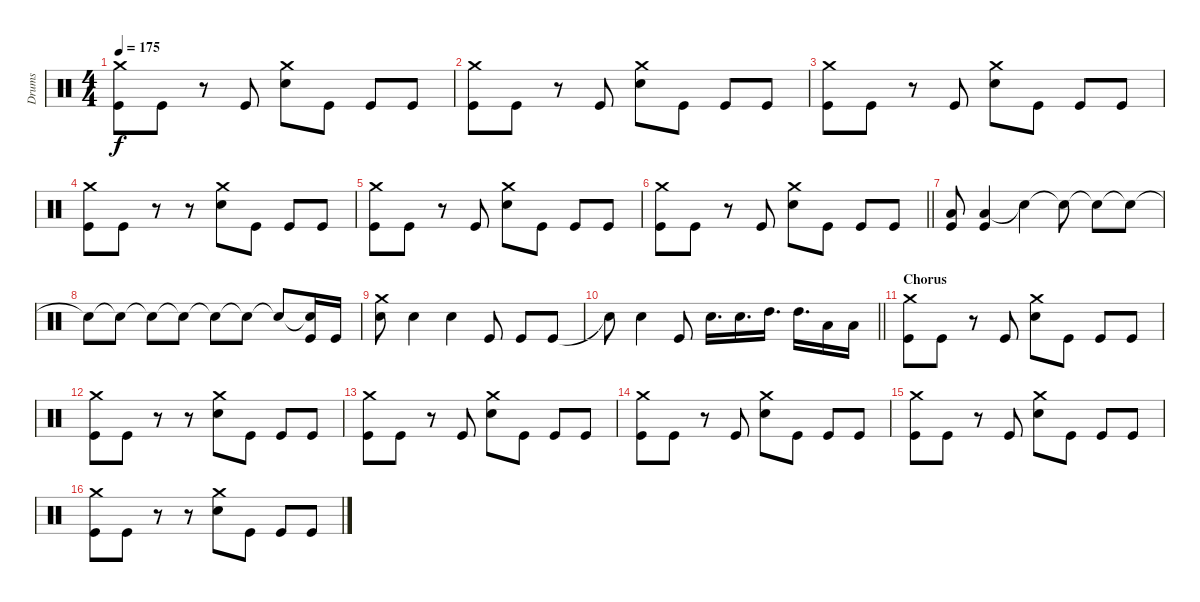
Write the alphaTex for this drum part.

\track ("Drums" "Drums") {instrument percussion}
\staff {score}
\articulation defaults
\ts (4 4)
\tempo 175
\clef neutral
\ks c
("Crash medium (hit)" "Kick (hit)").8{dy f} "Kick (hit)".8 r.8 "Kick (hit)".8 ("Crash medium (hit)" "Electric Snare (hit)").8 "Kick (hit)".8 "Kick (hit)".8 "Kick (hit)".8 |
("Crash medium (hit)" "Kick (hit)").8 "Kick (hit)".8 r.8 "Kick (hit)".8 ("Crash medium (hit)" "Electric Snare (hit)").8 "Kick (hit)".8 "Kick (hit)".8 "Kick (hit)".8 |
("Crash medium (hit)" "Kick (hit)").8 "Kick (hit)".8 r.8 "Kick (hit)".8 ("Crash medium (hit)" "Electric Snare (hit)").8 "Kick (hit)".8 "Kick (hit)".8 "Kick (hit)".8 |
("Crash medium (hit)" "Kick (hit)").8 "Kick (hit)".8 r.8 r.8 ("Crash medium (hit)" "Electric Snare (hit)").8 "Kick (hit)".8 "Kick (hit)".8 "Kick (hit)".8 |
("Crash medium (hit)" "Kick (hit)").8 "Kick (hit)".8 r.8 "Kick (hit)".8 ("Crash medium (hit)" "Electric Snare (hit)").8 "Kick (hit)".8 "Kick (hit)".8 "Kick (hit)".8 |
\barLineRight lightlight
("Crash medium (hit)" "Kick (hit)").8 "Kick (hit)".8 r.8 "Kick (hit)".8 ("Crash medium (hit)" "Electric Snare (hit)").8 "Kick (hit)".8 "Kick (hit)".8 "Kick (hit)".8 |
("Low Tom (hit)" "Kick (hit)").8 ("Low Tom (hit)" "Kick (hit)").4 "Snare (hit)"{t}.4 "Snare (hit)"{t}.8 "Snare (hit)"{t}.8 "Snare (hit)"{t}.8 |
"Snare (hit)"{t}.8 "Snare (hit)"{t}.8 "Snare (hit)"{t}.8 "Snare (hit)"{t}.8 "Snare (hit)"{t}.8 "Snare (hit)"{t}.8 "Snare (hit)"{t}.8 ("Snare (hit)"{t} "Kick (hit)").16 "Kick (hit)".16 |
("Crash medium (hit)" "Electric Snare (hit)").8 "Electric Snare (hit)".4 "Electric Snare (hit)".4 "Kick (hit)".8 "Kick (hit)".8 "Kick (hit)".8 |
\barLineRight lightlight "Snare (hit)"{t}.8 "Electric Snare (hit)".4 "Kick (hit)".8 "Electric Snare (hit)".16{d} "Electric Snare (hit)".16{d} "High Tom (hit)".16{d} "High Tom (hit)".16{d} "Low Tom (hit)".16 "Low Tom (hit)".16
|
\section ("" "Chorus")
("Crash medium (hit)" "Kick (hit)").8 "Kick (hit)".8 r.8 "Kick (hit)".8 ("Crash medium (hit)" "Electric Snare (hit)").8 "Kick (hit)".8 "Kick (hit)".8 "Kick (hit)".8 |
("Crash medium (hit)" "Kick (hit)").8 "Kick (hit)".8 r.8 r.8 ("Crash medium (hit)" "Electric Snare (hit)").8 "Kick (hit)".8 "Kick (hit)".8 "Kick (hit)".8 |
("Crash medium (hit)" "Kick (hit)").8 "Kick (hit)".8 r.8 "Kick (hit)".8 ("Crash medium (hit)" "Electric Snare (hit)").8 "Kick (hit)".8 "Kick (hit)".8 "Kick (hit)".8 |
("Crash medium (hit)" "Kick (hit)").8 "Kick (hit)".8 r.8 "Kick (hit)".8 ("Crash medium (hit)" "Electric Snare (hit)").8 "Kick (hit)".8 "Kick (hit)".8 "Kick (hit)".8 |
("Crash medium (hit)" "Kick (hit)").8 "Kick (hit)".8 r.8 "Kick (hit)".8 ("Crash medium (hit)" "Electric Snare (hit)").8 "Kick (hit)".8 "Kick (hit)".8 "Kick (hit)".8 |
("Crash medium (hit)" "Kick (hit)").8 "Kick (hit)".8 r.8 r.8 ("Crash medium (hit)" "Electric Snare (hit)").8 "Kick (hit)".8 "Kick (hit)".8 "Kick (hit)".8
